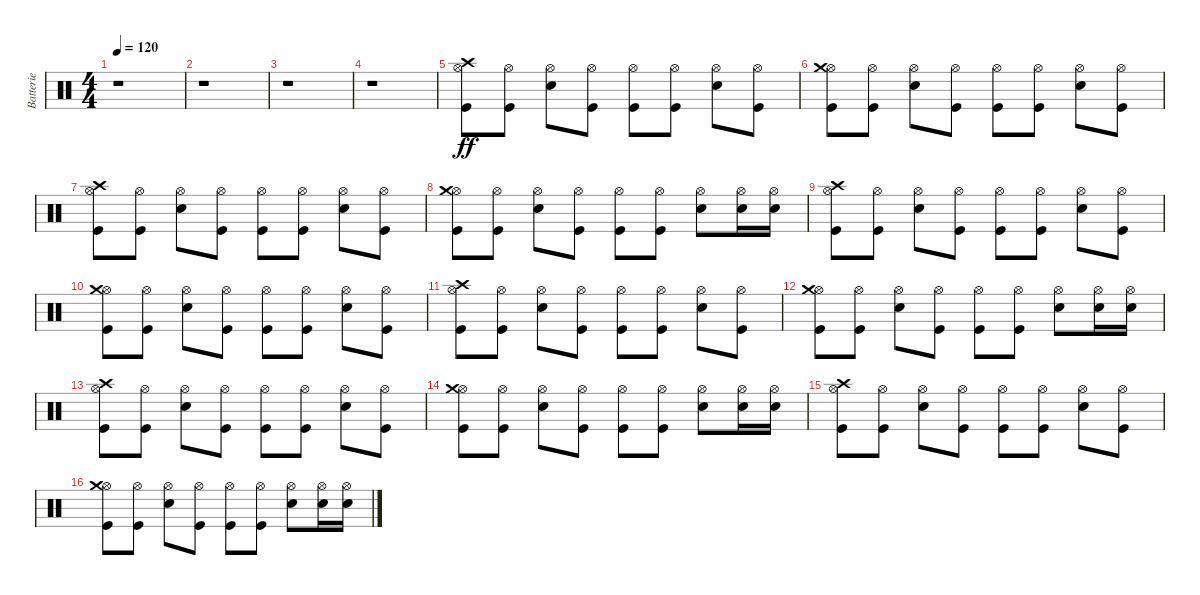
\track ("Batterie" "Batterie") {instrument percussion}
\staff {score}
\articulation defaults
\ts (4 4)
\tempo 120
\clef neutral
\ks c
r.1{dy ff} |
r.1 |
r.1 |
r.1 |
("Kick (hit)" "Hi-Hat (open)" "Crash high (hit)").8 ("Kick (hit)" "Hi-Hat (open)").8 ("Electric Snare (hit)" "Hi-Hat (open)").8 ("Kick (hit)" "Hi-Hat (open)").8 ("Kick (hit)" "Hi-Hat (open)").8 ("Kick (hit)" "Hi-Hat (open)").8 ("Electric Snare (hit)" "Hi-Hat (open)").8 ("Kick (hit)" "Hi-Hat (open)").8 |
("Kick (hit)" "Hi-Hat (open)" "Crash medium (hit)").8 ("Kick (hit)" "Hi-Hat (open)").8 ("Electric Snare (hit)" "Hi-Hat (open)").8 ("Kick (hit)" "Hi-Hat (open)").8 ("Kick (hit)" "Hi-Hat (open)").8 ("Kick (hit)" "Hi-Hat (open)").8 ("Electric Snare (hit)" "Hi-Hat (open)").8 ("Kick (hit)" "Hi-Hat (open)").8 |
("Kick (hit)" "Hi-Hat (open)" "Crash high (hit)").8 ("Kick (hit)" "Hi-Hat (open)").8 ("Electric Snare (hit)" "Hi-Hat (open)").8 ("Kick (hit)" "Hi-Hat (open)").8 ("Kick (hit)" "Hi-Hat (open)").8 ("Kick (hit)" "Hi-Hat (open)").8 ("Electric Snare (hit)" "Hi-Hat (open)").8 ("Kick (hit)" "Hi-Hat (open)").8 |
("Kick (hit)" "Hi-Hat (open)" "Crash medium (hit)").8 ("Kick (hit)" "Hi-Hat (open)").8 ("Electric Snare (hit)" "Hi-Hat (open)").8 ("Kick (hit)" "Hi-Hat (open)").8 ("Kick (hit)" "Hi-Hat (open)").8 ("Kick (hit)" "Hi-Hat (open)").8 ("Electric Snare (hit)" "Hi-Hat (open)").8 ("Electric Snare (hit)" "Hi-Hat (open)").16 ("Electric Snare (hit)" "Hi-Hat (open)").16 |
("Kick (hit)" "Hi-Hat (open)" "Crash high (hit)").8 ("Kick (hit)" "Hi-Hat (open)").8 ("Electric Snare (hit)" "Hi-Hat (open)").8 ("Kick (hit)" "Hi-Hat (open)").8 ("Kick (hit)" "Hi-Hat (open)").8 ("Kick (hit)" "Hi-Hat (open)").8 ("Electric Snare (hit)" "Hi-Hat (open)").8 ("Kick (hit)" "Hi-Hat (open)").8 |
("Kick (hit)" "Hi-Hat (open)" "Crash medium (hit)").8 ("Kick (hit)" "Hi-Hat (open)").8 ("Electric Snare (hit)" "Hi-Hat (open)").8 ("Kick (hit)" "Hi-Hat (open)").8 ("Kick (hit)" "Hi-Hat (open)").8 ("Kick (hit)" "Hi-Hat (open)").8 ("Electric Snare (hit)" "Hi-Hat (open)").8 ("Kick (hit)" "Hi-Hat (open)").8 |
("Kick (hit)" "Hi-Hat (open)" "Crash high (hit)").8 ("Kick (hit)" "Hi-Hat (open)").8 ("Electric Snare (hit)" "Hi-Hat (open)").8 ("Kick (hit)" "Hi-Hat (open)").8 ("Kick (hit)" "Hi-Hat (open)").8 ("Kick (hit)" "Hi-Hat (open)").8 ("Electric Snare (hit)" "Hi-Hat (open)").8 ("Kick (hit)" "Hi-Hat (open)").8 |
("Kick (hit)" "Hi-Hat (open)" "Crash medium (hit)").8 ("Kick (hit)" "Hi-Hat (open)").8 ("Electric Snare (hit)" "Hi-Hat (open)").8 ("Kick (hit)" "Hi-Hat (open)").8 ("Kick (hit)" "Hi-Hat (open)").8 ("Kick (hit)" "Hi-Hat (open)").8 ("Electric Snare (hit)" "Hi-Hat (open)").8 ("Electric Snare (hit)" "Hi-Hat (open)").16 ("Electric Snare (hit)" "Hi-Hat (open)").16 |
("Kick (hit)" "Hi-Hat (open)" "Crash high (hit)").8 ("Kick (hit)" "Hi-Hat (open)").8 ("Electric Snare (hit)" "Hi-Hat (open)").8 ("Kick (hit)" "Hi-Hat (open)").8 ("Kick (hit)" "Hi-Hat (open)").8 ("Kick (hit)" "Hi-Hat (open)").8 ("Electric Snare (hit)" "Hi-Hat (open)").8 ("Kick (hit)" "Hi-Hat (open)").8 |
("Kick (hit)" "Hi-Hat (open)" "Crash medium (hit)").8 ("Kick (hit)" "Hi-Hat (open)").8 ("Electric Snare (hit)" "Hi-Hat (open)").8 ("Kick (hit)" "Hi-Hat (open)").8 ("Kick (hit)" "Hi-Hat (open)").8 ("Kick (hit)" "Hi-Hat (open)").8 ("Electric Snare (hit)" "Hi-Hat (open)").8 ("Electric Snare (hit)" "Hi-Hat (open)").16 ("Electric Snare (hit)" "Hi-Hat (open)").16 |
("Kick (hit)" "Hi-Hat (open)" "Crash high (hit)").8 ("Kick (hit)" "Hi-Hat (open)").8 ("Electric Snare (hit)" "Hi-Hat (open)").8 ("Kick (hit)" "Hi-Hat (open)").8 ("Kick (hit)" "Hi-Hat (open)").8 ("Kick (hit)" "Hi-Hat (open)").8 ("Electric Snare (hit)" "Hi-Hat (open)").8 ("Kick (hit)" "Hi-Hat (open)").8 |
("Kick (hit)" "Hi-Hat (open)" "Crash medium (hit)").8 ("Kick (hit)" "Hi-Hat (open)").8 ("Electric Snare (hit)" "Hi-Hat (open)").8 ("Kick (hit)" "Hi-Hat (open)").8 ("Kick (hit)" "Hi-Hat (open)").8 ("Kick (hit)" "Hi-Hat (open)").8 ("Electric Snare (hit)" "Hi-Hat (open)").8 ("Electric Snare (hit)" "Hi-Hat (open)").16 ("Electric Snare (hit)" "Hi-Hat (open)").16
